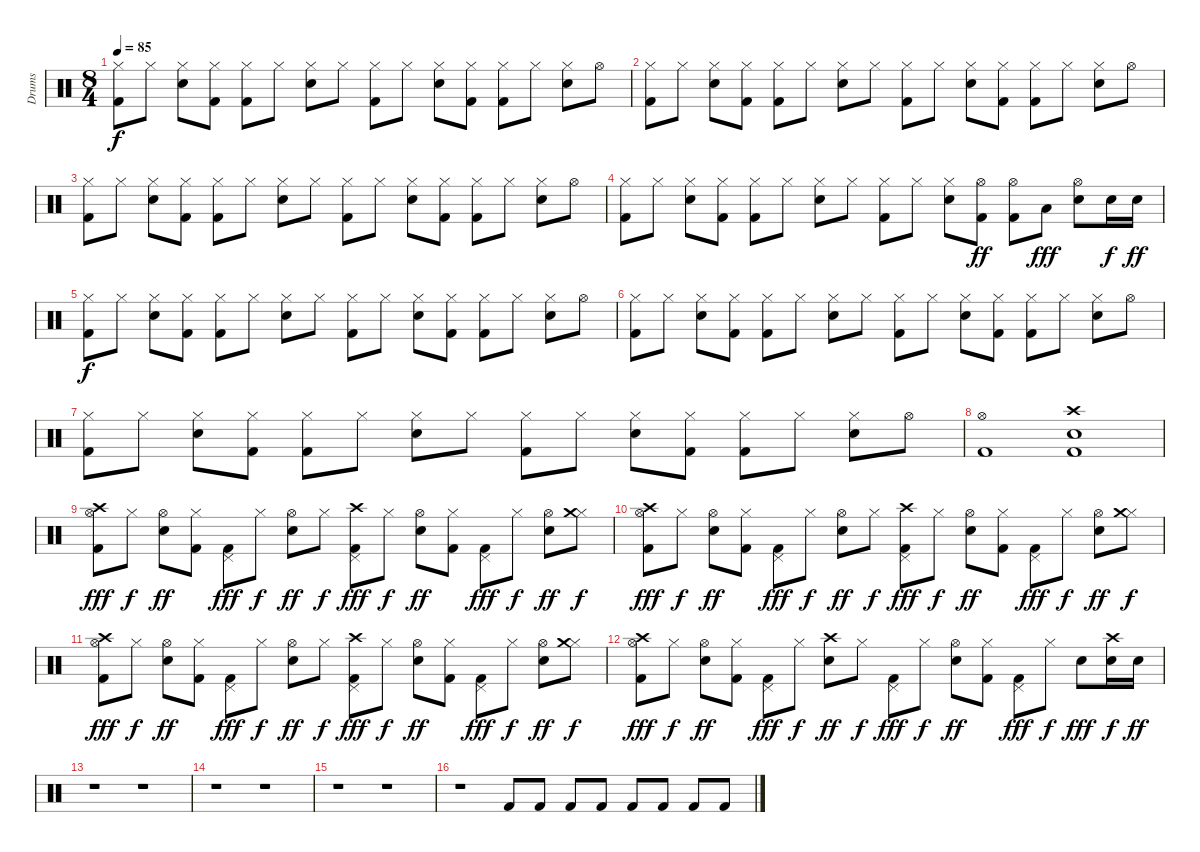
\track ("Drums" "Drums") {instrument percussion}
\staff {score}
\articulation defaults
\ts (8 4)
\tempo 85
\clef neutral
\ks c
("Hi-Hat (closed)" "Kick (hit) 2").8{dy f} "Hi-Hat (closed)".8 ("Hi-Hat (closed)" "Electric Snare (hit)").8 ("Hi-Hat (closed)" "Kick (hit) 2").8 ("Hi-Hat (closed)" "Kick (hit) 2").8 "Hi-Hat (closed)".8 ("Hi-Hat (closed)" "Electric Snare (hit)").8 "Hi-Hat (closed)".8 ("Hi-Hat (closed)" "Kick (hit) 2").8 "Hi-Hat (closed)".8 ("Hi-Hat (closed)" "Electric Snare (hit)").8 ("Hi-Hat (closed)" "Kick (hit) 2").8 ("Hi-Hat (closed)" "Kick (hit) 2").8 "Hi-Hat (closed)".8 ("Hi-Hat (closed)" "Electric Snare (hit)").8 "Hi-Hat (open)".8 |
("Hi-Hat (closed)" "Kick (hit) 2").8 "Hi-Hat (closed)".8 ("Hi-Hat (closed)" "Electric Snare (hit)").8 ("Hi-Hat (closed)" "Kick (hit) 2").8 ("Hi-Hat (closed)" "Kick (hit) 2").8 "Hi-Hat (closed)".8 ("Hi-Hat (closed)" "Electric Snare (hit)").8 "Hi-Hat (closed)".8 ("Hi-Hat (closed)" "Kick (hit) 2").8 "Hi-Hat (closed)".8 ("Hi-Hat (closed)" "Electric Snare (hit)").8 ("Hi-Hat (closed)" "Kick (hit) 2").8 ("Hi-Hat (closed)" "Kick (hit) 2").8 "Hi-Hat (closed)".8 ("Hi-Hat (closed)" "Electric Snare (hit)").8 "Hi-Hat (open)".8 |
("Hi-Hat (closed)" "Kick (hit) 2").8 "Hi-Hat (closed)".8 ("Hi-Hat (closed)" "Electric Snare (hit)").8 ("Hi-Hat (closed)" "Kick (hit) 2").8 ("Hi-Hat (closed)" "Kick (hit) 2").8 "Hi-Hat (closed)".8 ("Hi-Hat (closed)" "Electric Snare (hit)").8 "Hi-Hat (closed)".8 ("Hi-Hat (closed)" "Kick (hit) 2").8 "Hi-Hat (closed)".8 ("Hi-Hat (closed)" "Electric Snare (hit)").8 ("Hi-Hat (closed)" "Kick (hit) 2").8 ("Hi-Hat (closed)" "Kick (hit) 2").8 "Hi-Hat (closed)".8 ("Hi-Hat (closed)" "Electric Snare (hit)").8 "Hi-Hat (open)".8 |
("Hi-Hat (closed)" "Kick (hit) 2").8 "Hi-Hat (closed)".8 ("Hi-Hat (closed)" "Electric Snare (hit)").8 ("Hi-Hat (closed)" "Kick (hit) 2").8 ("Hi-Hat (closed)" "Kick (hit) 2").8 "Hi-Hat (closed)".8 ("Hi-Hat (closed)" "Electric Snare (hit)").8 "Hi-Hat (closed)".8 ("Hi-Hat (closed)" "Kick (hit) 2").8 "Hi-Hat (closed)".8 ("Hi-Hat (closed)" "Electric Snare (hit)").8 ("Hi-Hat (open)" "Kick (hit) 2").8{dy ff} ("Hi-Hat (open)" "Kick (hit) 2").8 "Low Tom (hit)".8{dy fff} ("Hi-Hat (open)" "Electric Snare (hit)").8 "Electric Snare (hit)".16{dy f} "Electric Snare (hit)".16{dy ff} |
("Hi-Hat (closed)" "Kick (hit) 2").8{dy f} "Hi-Hat (closed)".8 ("Hi-Hat (closed)" "Electric Snare (hit)").8 ("Hi-Hat (closed)" "Kick (hit) 2").8 ("Hi-Hat (closed)" "Kick (hit) 2").8 "Hi-Hat (closed)".8 ("Hi-Hat (closed)" "Electric Snare (hit)").8 "Hi-Hat (closed)".8 ("Hi-Hat (closed)" "Kick (hit) 2").8 "Hi-Hat (closed)".8 ("Hi-Hat (closed)" "Electric Snare (hit)").8 ("Hi-Hat (closed)" "Kick (hit) 2").8 ("Hi-Hat (closed)" "Kick (hit) 2").8 "Hi-Hat (closed)".8 ("Hi-Hat (closed)" "Electric Snare (hit)").8 "Hi-Hat (open)".8 |
("Hi-Hat (closed)" "Kick (hit) 2").8 "Hi-Hat (closed)".8 ("Hi-Hat (closed)" "Electric Snare (hit)").8 ("Hi-Hat (closed)" "Kick (hit) 2").8 ("Hi-Hat (closed)" "Kick (hit) 2").8 "Hi-Hat (closed)".8 ("Hi-Hat (closed)" "Electric Snare (hit)").8 "Hi-Hat (closed)".8 ("Hi-Hat (closed)" "Kick (hit) 2").8 "Hi-Hat (closed)".8 ("Hi-Hat (closed)" "Electric Snare (hit)").8 ("Hi-Hat (closed)" "Kick (hit) 2").8 ("Hi-Hat (closed)" "Kick (hit) 2").8 "Hi-Hat (closed)".8 ("Hi-Hat (closed)" "Electric Snare (hit)").8 "Hi-Hat (open)".8 |
("Hi-Hat (closed)" "Kick (hit) 2").8 "Hi-Hat (closed)".8 ("Hi-Hat (closed)" "Electric Snare (hit)").8 ("Hi-Hat (closed)" "Kick (hit) 2").8 ("Hi-Hat (closed)" "Kick (hit) 2").8 "Hi-Hat (closed)".8 ("Hi-Hat (closed)" "Electric Snare (hit)").8 "Hi-Hat (closed)".8 ("Hi-Hat (closed)" "Kick (hit) 2").8 "Hi-Hat (closed)".8 ("Hi-Hat (closed)" "Electric Snare (hit)").8 ("Hi-Hat (closed)" "Kick (hit) 2").8 ("Hi-Hat (closed)" "Kick (hit) 2").8 "Hi-Hat (closed)".8 ("Hi-Hat (closed)" "Electric Snare (hit)").8 "Hi-Hat (open)".8 |
("Hi-Hat (open)" "Kick (hit) 2").1 ("Crash high (hit)" "Electric Snare (hit)" "Kick (hit) 2").1 |
("Hi-Hat (open)" "Crash high (hit)" "Kick (hit) 2").8{dy fff} "Hi-Hat (closed)".8{dy f} ("Hi-Hat (open)" "Electric Snare (hit)").8{dy ff} ("Hi-Hat (closed)" "Kick (hit) 2").8 ("Pedal Hi-Hat (hit)" "Kick (hit) 2").8{dy fff} "Hi-Hat (closed)".8{dy f} ("Hi-Hat (open)" "Electric Snare (hit)").8{dy ff} "Hi-Hat (closed)".8{dy f} ("Pedal Hi-Hat (hit)" "Crash high (hit)" "Kick (hit) 2").8{dy fff} "Hi-Hat (closed)".8{dy f} ("Hi-Hat (open)" "Electric Snare (hit)").8{dy ff} ("Hi-Hat (closed)" "Kick (hit) 2").8 ("Pedal Hi-Hat (hit)" "Kick (hit) 2").8{dy fff} "Hi-Hat (closed)".8{dy f} ("Hi-Hat (open)" "Electric Snare (hit)").8{dy ff} ("Hi-Hat (closed)" "Crash medium (hit)").8{dy f} |
("Hi-Hat (open)" "Crash high (hit)" "Kick (hit) 2").8{dy fff} "Hi-Hat (closed)".8{dy f} ("Hi-Hat (open)" "Electric Snare (hit)").8{dy ff} ("Hi-Hat (closed)" "Kick (hit) 2").8 ("Pedal Hi-Hat (hit)" "Kick (hit) 2").8{dy fff} "Hi-Hat (closed)".8{dy f} ("Hi-Hat (open)" "Electric Snare (hit)").8{dy ff} "Hi-Hat (closed)".8{dy f} ("Pedal Hi-Hat (hit)" "Crash high (hit)" "Kick (hit) 2").8{dy fff} "Hi-Hat (closed)".8{dy f} ("Hi-Hat (open)" "Electric Snare (hit)").8{dy ff} ("Hi-Hat (closed)" "Kick (hit) 2").8 ("Pedal Hi-Hat (hit)" "Kick (hit) 2").8{dy fff} "Hi-Hat (closed)".8{dy f} ("Hi-Hat (open)" "Electric Snare (hit)").8{dy ff} ("Hi-Hat (closed)" "Crash medium (hit)").8{dy f} |
("Hi-Hat (open)" "Crash high (hit)" "Kick (hit) 2").8{dy fff} "Hi-Hat (closed)".8{dy f} ("Hi-Hat (open)" "Electric Snare (hit)").8{dy ff} ("Hi-Hat (closed)" "Kick (hit) 2").8 ("Pedal Hi-Hat (hit)" "Kick (hit) 2").8{dy fff} "Hi-Hat (closed)".8{dy f} ("Hi-Hat (open)" "Electric Snare (hit)").8{dy ff} "Hi-Hat (closed)".8{dy f} ("Pedal Hi-Hat (hit)" "Crash high (hit)" "Kick (hit) 2").8{dy fff} "Hi-Hat (closed)".8{dy f} ("Hi-Hat (open)" "Electric Snare (hit)").8{dy ff} ("Hi-Hat (closed)" "Kick (hit) 2").8 ("Pedal Hi-Hat (hit)" "Kick (hit) 2").8{dy fff} "Hi-Hat (closed)".8{dy f} ("Hi-Hat (open)" "Electric Snare (hit)").8{dy ff} ("Hi-Hat (closed)" "Crash medium (hit)").8{dy f} |
("Hi-Hat (open)" "Crash high (hit)" "Kick (hit) 2").8{dy fff} "Hi-Hat (closed)".8{dy f} ("Hi-Hat (open)" "Electric Snare (hit)").8{dy ff} ("Hi-Hat (closed)" "Kick (hit) 2").8 ("Pedal Hi-Hat (hit)" "Kick (hit) 2").8{dy fff} "Hi-Hat (closed)".8{dy f} ("Crash high (hit)" "Electric Snare (hit)").8{dy ff} "Hi-Hat (closed)".8{dy f} ("Pedal Hi-Hat (hit)" "Kick (hit) 2").8{dy fff} "Hi-Hat (closed)".8{dy f} ("Hi-Hat (open)" "Electric Snare (hit)").8{dy ff} ("Hi-Hat (closed)" "Kick (hit) 2").8 ("Pedal Hi-Hat (hit)" "Kick (hit) 2").8{dy fff} "Hi-Hat (closed)".8{dy f} "Electric Snare (hit)".8{dy fff} ("Crash high (hit)" "Electric Snare (hit)").16{dy f} "Electric Snare (hit)".16{dy ff} |
r.1 r.1 |
r.1 r.1 |
r.1 r.1 |
r.1{volume 6} "Kick (hit) 2".8{volume 10} "Kick (hit) 2".8 "Kick (hit) 2".8 "Kick (hit) 2".8 "Kick (hit) 2".8 "Kick (hit) 2".8 "Kick (hit) 2".8 "Kick (hit) 2".8
